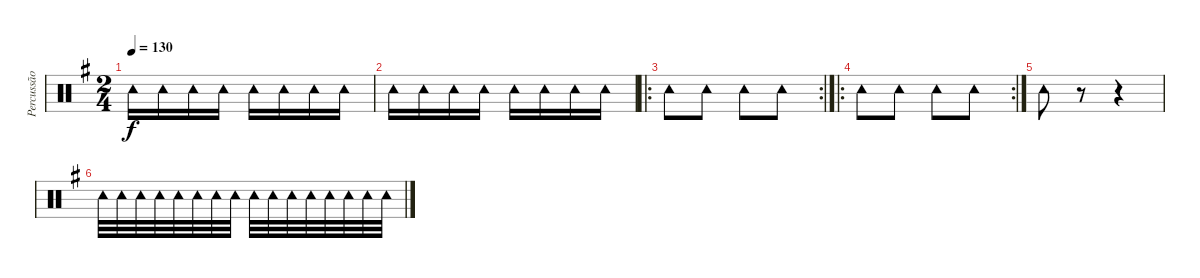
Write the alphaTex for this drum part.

\track ("Percussão" "Percussão") {instrument percussion}
\staff {score}
\articulation defaults
\ts (2 4)
\tempo 130
\clef neutral
\ks g "Tambourine (hit)".16{dy f} "Tambourine (hit)".16 "Tambourine (hit)".16 "Tambourine (hit)".16 "Tambourine (hit)".16 "Tambourine (hit)".16 "Tambourine (hit)".16 "Tambourine (hit)".16
|
"Tambourine (hit)".16 "Tambourine (hit)".16 "Tambourine (hit)".16 "Tambourine (hit)".16 "Tambourine (hit)".16 "Tambourine (hit)".16 "Tambourine (hit)".16 "Tambourine (hit)".16 |
\ro
\rc 2 "Tambourine (hit)".8 "Tambourine (hit)".8 "Tambourine (hit)".8 "Tambourine (hit)".8
|
\ro
\rc 2 "Tambourine (hit)".8 "Tambourine (hit)".8 "Tambourine (hit)".8 "Tambourine (hit)".8
|
"Tambourine (hit)".8{volume 9} r.8 r.4 |
"Tambourine (hit)".32 "Tambourine (hit)".32 "Tambourine (hit)".32 "Tambourine (hit)".32 "Tambourine (hit)".32 "Tambourine (hit)".32 "Tambourine (hit)".32 "Tambourine (hit)".32 "Tambourine (hit)".32 "Tambourine (hit)".32 "Tambourine (hit)".32 "Tambourine (hit)".32 "Tambourine (hit)".32 "Tambourine (hit)".32 "Tambourine (hit)".32 "Tambourine (hit)".32
